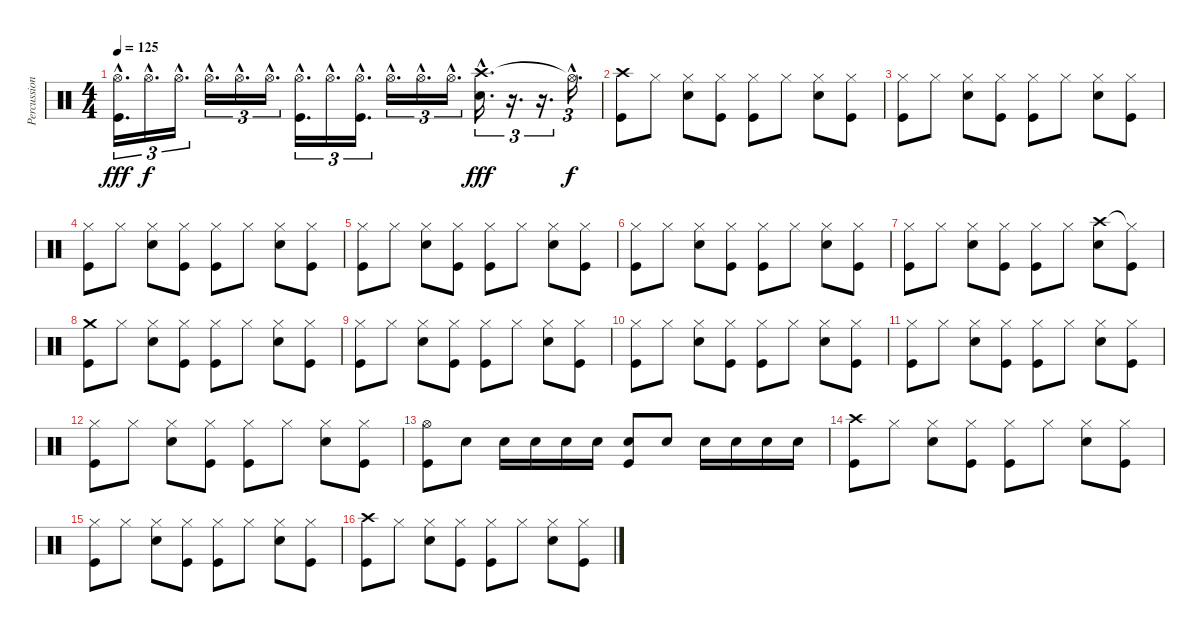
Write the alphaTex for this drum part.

\track ("Percussion" "Percussion") {instrument percussion}
\staff {score}
\articulation defaults
\ts (4 4)
\tempo 125
\clef neutral
\ks c
("Hi-Hat (open)"{hac} "Kick (hit)"{hac}).16{d tu (3 2) dy fff} "Hi-Hat (open)"{hac}.16{d tu (3 2) dy f} "Hi-Hat (open)"{hac}.16{d tu (3 2)} "Hi-Hat (open)"{hac}.16{d tu (3 2)} "Hi-Hat (open)"{hac}.16{d tu (3 2)} "Hi-Hat (open)"{hac}.16{d tu (3 2)} ("Hi-Hat (open)"{hac} "Kick (hit)"{hac}).16{d tu (3 2)} "Hi-Hat (open)"{hac}.16{d tu (3 2)} ("Hi-Hat (open)"{hac} "Kick (hit)"{hac}).16{d tu (3 2)} "Hi-Hat (open)"{hac}.16{d tu (3 2)} "Hi-Hat (open)"{hac}.16{d tu (3 2)} "Hi-Hat (open)"{hac}.16{d tu (3 2)} ("Crash high (hit)"{hac} "Electric Snare (hit)"{hac}).16{d tu (3 2) dy fff} r.16{d tu (3 2)} r.16{d tu (3 2)} "Hi-Hat (open)"{hac t}.16{d tu (3 2) dy f} |
("Crash high (hit)" "Kick (hit)").8 "Hi-Hat (closed)".8 ("Hi-Hat (closed)" "Electric Snare (hit)").8 ("Hi-Hat (closed)" "Kick (hit)").8 ("Hi-Hat (closed)" "Kick (hit)").8 "Hi-Hat (closed)".8 ("Hi-Hat (closed)" "Electric Snare (hit)").8 ("Hi-Hat (closed)" "Kick (hit)").8 |
("Hi-Hat (closed)" "Kick (hit)").8 "Hi-Hat (closed)".8 ("Hi-Hat (closed)" "Electric Snare (hit)").8 ("Hi-Hat (closed)" "Kick (hit)").8 ("Hi-Hat (closed)" "Kick (hit)").8 "Hi-Hat (closed)".8 ("Hi-Hat (closed)" "Electric Snare (hit)").8 ("Hi-Hat (closed)" "Kick (hit)").8 |
("Hi-Hat (closed)" "Kick (hit)").8 "Hi-Hat (closed)".8 ("Hi-Hat (closed)" "Electric Snare (hit)").8 ("Hi-Hat (closed)" "Kick (hit)").8 ("Hi-Hat (closed)" "Kick (hit)").8 "Hi-Hat (closed)".8 ("Hi-Hat (closed)" "Electric Snare (hit)").8 ("Hi-Hat (closed)" "Kick (hit)").8 |
("Hi-Hat (closed)" "Kick (hit)").8 "Hi-Hat (closed)".8 ("Hi-Hat (closed)" "Electric Snare (hit)").8 ("Hi-Hat (closed)" "Kick (hit)").8 ("Hi-Hat (closed)" "Kick (hit)").8 "Hi-Hat (closed)".8 ("Hi-Hat (closed)" "Electric Snare (hit)").8 ("Hi-Hat (closed)" "Kick (hit)").8 |
("Hi-Hat (closed)" "Kick (hit)").8 "Hi-Hat (closed)".8 ("Hi-Hat (closed)" "Electric Snare (hit)").8 ("Hi-Hat (closed)" "Kick (hit)").8 ("Hi-Hat (closed)" "Kick (hit)").8 "Hi-Hat (closed)".8 ("Hi-Hat (closed)" "Electric Snare (hit)").8 ("Hi-Hat (closed)" "Kick (hit)").8 |
("Hi-Hat (closed)" "Kick (hit)").8 "Hi-Hat (closed)".8 ("Hi-Hat (closed)" "Electric Snare (hit)").8 ("Hi-Hat (closed)" "Kick (hit)").8 ("Hi-Hat (closed)" "Kick (hit)").8 "Hi-Hat (closed)".8 ("Crash high (hit)" "Electric Snare (hit)").8 ("Hi-Hat (closed)"{t} "Kick (hit)").8 |
("Crash medium (hit)" "Kick (hit)").8 "Hi-Hat (closed)".8 ("Hi-Hat (closed)" "Electric Snare (hit)").8 ("Hi-Hat (closed)" "Kick (hit)").8 ("Hi-Hat (closed)" "Kick (hit)").8 "Hi-Hat (closed)".8 ("Hi-Hat (closed)" "Electric Snare (hit)").8 ("Hi-Hat (closed)" "Kick (hit)").8 |
("Hi-Hat (closed)" "Kick (hit)").8 "Hi-Hat (closed)".8 ("Hi-Hat (closed)" "Electric Snare (hit)").8 ("Hi-Hat (closed)" "Kick (hit)").8 ("Hi-Hat (closed)" "Kick (hit)").8 "Hi-Hat (closed)".8 ("Hi-Hat (closed)" "Electric Snare (hit)").8 ("Hi-Hat (closed)" "Kick (hit)").8 |
("Hi-Hat (closed)" "Kick (hit)").8 "Hi-Hat (closed)".8 ("Hi-Hat (closed)" "Electric Snare (hit)").8 ("Hi-Hat (closed)" "Kick (hit)").8 ("Hi-Hat (closed)" "Kick (hit)").8 "Hi-Hat (closed)".8 ("Hi-Hat (closed)" "Electric Snare (hit)").8 ("Hi-Hat (closed)" "Kick (hit)").8 |
("Hi-Hat (closed)" "Kick (hit)").8 "Hi-Hat (closed)".8 ("Hi-Hat (closed)" "Electric Snare (hit)").8 ("Hi-Hat (closed)" "Kick (hit)").8 ("Hi-Hat (closed)" "Kick (hit)").8 "Hi-Hat (closed)".8 ("Hi-Hat (closed)" "Electric Snare (hit)").8 ("Hi-Hat (closed)" "Kick (hit)").8 |
("Hi-Hat (closed)" "Kick (hit)").8 "Hi-Hat (closed)".8 ("Hi-Hat (closed)" "Electric Snare (hit)").8 ("Hi-Hat (closed)" "Kick (hit)").8 ("Hi-Hat (closed)" "Kick (hit)").8 "Hi-Hat (closed)".8 ("Hi-Hat (closed)" "Electric Snare (hit)").8 ("Hi-Hat (closed)" "Kick (hit)").8 |
("Hi-Hat (open)" "Kick (hit)").8 "Electric Snare (hit)".8 "Electric Snare (hit)".16 "Electric Snare (hit)".16 "Electric Snare (hit)".16 "Electric Snare (hit)".16 ("Electric Snare (hit)" "Kick (hit)").8 "Electric Snare (hit)".8 "Electric Snare (hit)".16 "Electric Snare (hit)".16 "Electric Snare (hit)".16 "Electric Snare (hit)".16 |
("Crash high (hit)" "Kick (hit)").8 "Hi-Hat (closed)".8 ("Hi-Hat (closed)" "Electric Snare (hit)").8 ("Hi-Hat (closed)" "Kick (hit)").8 ("Hi-Hat (closed)" "Kick (hit)").8 "Hi-Hat (closed)".8 ("Hi-Hat (closed)" "Electric Snare (hit)").8 ("Hi-Hat (closed)" "Kick (hit)").8 |
("Hi-Hat (closed)" "Kick (hit)").8 "Hi-Hat (closed)".8 ("Hi-Hat (closed)" "Electric Snare (hit)").8 ("Hi-Hat (closed)" "Kick (hit)").8 ("Hi-Hat (closed)" "Kick (hit)").8 "Hi-Hat (closed)".8 ("Hi-Hat (closed)" "Electric Snare (hit)").8 ("Hi-Hat (closed)" "Kick (hit)").8 |
("Crash high (hit)" "Kick (hit)").8 "Hi-Hat (closed)".8 ("Hi-Hat (closed)" "Electric Snare (hit)").8 ("Hi-Hat (closed)" "Kick (hit)").8 ("Hi-Hat (closed)" "Kick (hit)").8 "Hi-Hat (closed)".8 ("Hi-Hat (closed)" "Electric Snare (hit)").8 ("Hi-Hat (closed)" "Kick (hit)").8
